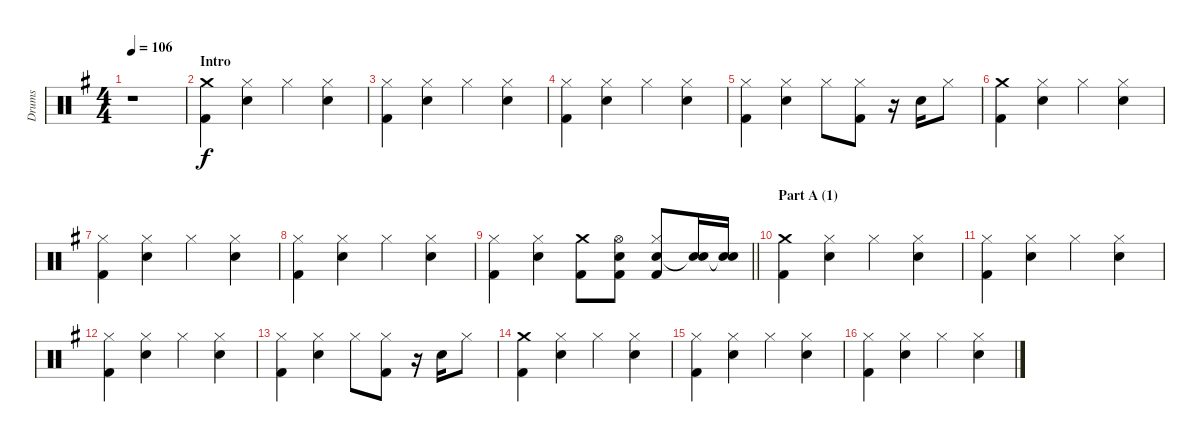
\track ("Drums" "Drums") {instrument percussion}
\staff {score}
\articulation defaults
\ts (4 4)
\tempo 106
\clef neutral
\ks g
r.1{dy f} |
\section ("" "Intro")
("Crash medium (hit)" "Kick (hit) 2").4 ("Hi-Hat (closed)" "Electric Snare (hit)").4 "Hi-Hat (closed)".4 ("Hi-Hat (closed)" "Electric Snare (hit)").4 |
("Hi-Hat (closed)" "Kick (hit) 2").4 ("Hi-Hat (closed)" "Electric Snare (hit)").4 "Hi-Hat (closed)".4 ("Hi-Hat (closed)" "Electric Snare (hit)").4 |
("Hi-Hat (closed)" "Kick (hit) 2").4 ("Hi-Hat (closed)" "Electric Snare (hit)").4 "Hi-Hat (closed)".4 ("Hi-Hat (closed)" "Electric Snare (hit)").4 |
("Hi-Hat (closed)" "Kick (hit) 2").4 ("Hi-Hat (closed)" "Electric Snare (hit)").4 "Hi-Hat (closed)".8 ("Hi-Hat (closed)" "Kick (hit) 2").8 r.16 "Electric Snare (hit)".16 "Hi-Hat (closed)".8 |
("Crash medium (hit)" "Kick (hit) 2").4 ("Hi-Hat (closed)" "Electric Snare (hit)").4 "Hi-Hat (closed)".4 ("Hi-Hat (closed)" "Electric Snare (hit)").4 |
("Hi-Hat (closed)" "Kick (hit) 2").4 ("Hi-Hat (closed)" "Electric Snare (hit)").4 "Hi-Hat (closed)".4 ("Hi-Hat (closed)" "Electric Snare (hit)").4 |
("Hi-Hat (closed)" "Kick (hit) 2").4 ("Hi-Hat (closed)" "Electric Snare (hit)").4 "Hi-Hat (closed)".4 ("Hi-Hat (closed)" "Electric Snare (hit)").4 |
\barLineRight lightlight
("Hi-Hat (closed)" "Kick (hit) 2").4 ("Hi-Hat (closed)" "Electric Snare (hit)").4 ("Crash medium (hit)" "Kick (hit) 2").8 ("Hi-Hat (open)" "Electric Snare (hit)" "Kick (hit) 2").8 ("Hi-Hat (closed)" "Electric Snare (hit)" "Kick (hit) 2").8 ("Electric Snare (hit)" "Snare (hit)"{t}).16 ("Electric Snare (hit)" "Snare (hit)"{t}).16 |
\section ("" "Part A (1)")
("Crash medium (hit)" "Kick (hit) 2").4 ("Hi-Hat (closed)" "Electric Snare (hit)").4 "Hi-Hat (closed)".4 ("Hi-Hat (closed)" "Electric Snare (hit)").4 |
("Hi-Hat (closed)" "Kick (hit) 2").4 ("Hi-Hat (closed)" "Electric Snare (hit)").4 "Hi-Hat (closed)".4 ("Hi-Hat (closed)" "Electric Snare (hit)").4 |
("Hi-Hat (closed)" "Kick (hit) 2").4 ("Hi-Hat (closed)" "Electric Snare (hit)").4 "Hi-Hat (closed)".4 ("Hi-Hat (closed)" "Electric Snare (hit)").4 |
("Hi-Hat (closed)" "Kick (hit) 2").4 ("Hi-Hat (closed)" "Electric Snare (hit)").4 "Hi-Hat (closed)".8 ("Hi-Hat (closed)" "Kick (hit) 2").8 r.16 "Electric Snare (hit)".16 "Hi-Hat (closed)".8 |
("Crash medium (hit)" "Kick (hit) 2").4 ("Hi-Hat (closed)" "Electric Snare (hit)").4 "Hi-Hat (closed)".4 ("Hi-Hat (closed)" "Electric Snare (hit)").4 |
("Hi-Hat (closed)" "Kick (hit) 2").4 ("Hi-Hat (closed)" "Electric Snare (hit)").4 "Hi-Hat (closed)".4 ("Hi-Hat (closed)" "Electric Snare (hit)").4 |
("Hi-Hat (closed)" "Kick (hit) 2").4 ("Hi-Hat (closed)" "Electric Snare (hit)").4 "Hi-Hat (closed)".4 ("Hi-Hat (closed)" "Electric Snare (hit)").4
